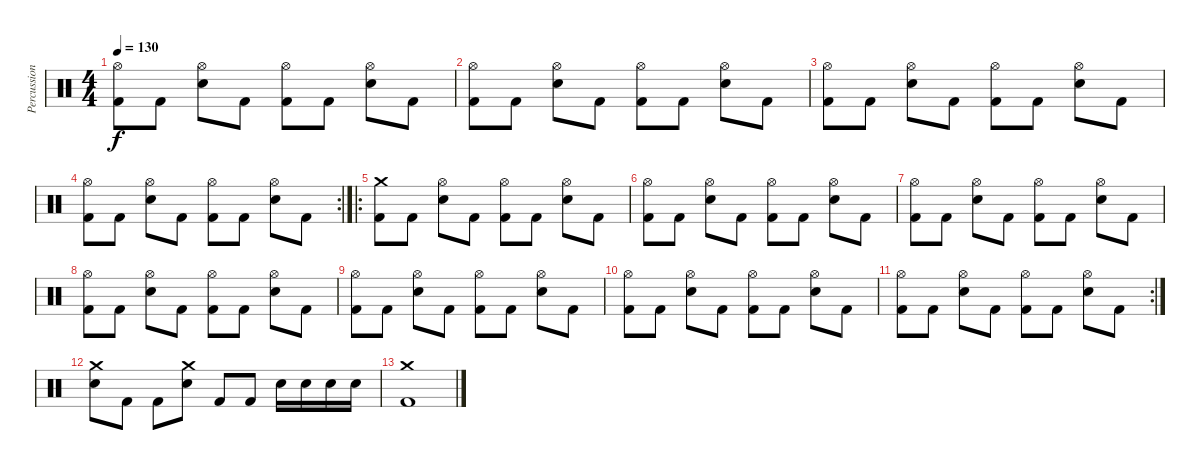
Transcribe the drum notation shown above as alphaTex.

\track ("Percussion" "Percussion") {instrument percussion}
\staff {score}
\articulation defaults
\ts (4 4)
\tempo 130
\clef neutral
\ks c
("Hi-Hat (open)" "Kick (hit) 2").8{dy f} "Kick (hit) 2".8 ("Hi-Hat (open)" "Electric Snare (hit)").8 "Kick (hit) 2".8 ("Hi-Hat (open)" "Kick (hit) 2").8 "Kick (hit) 2".8 ("Hi-Hat (open)" "Electric Snare (hit)").8 "Kick (hit) 2".8 |
("Hi-Hat (open)" "Kick (hit) 2").8 "Kick (hit) 2".8 ("Hi-Hat (open)" "Electric Snare (hit)").8 "Kick (hit) 2".8 ("Hi-Hat (open)" "Kick (hit) 2").8 "Kick (hit) 2".8 ("Hi-Hat (open)" "Electric Snare (hit)").8 "Kick (hit) 2".8 |
("Hi-Hat (open)" "Kick (hit) 2").8 "Kick (hit) 2".8 ("Hi-Hat (open)" "Electric Snare (hit)").8 "Kick (hit) 2".8 ("Hi-Hat (open)" "Kick (hit) 2").8 "Kick (hit) 2".8 ("Hi-Hat (open)" "Electric Snare (hit)").8 "Kick (hit) 2".8 |
\rc 2
("Hi-Hat (open)" "Kick (hit) 2").8 "Kick (hit) 2".8 ("Hi-Hat (open)" "Electric Snare (hit)").8 "Kick (hit) 2".8 ("Hi-Hat (open)" "Kick (hit) 2").8 "Kick (hit) 2".8 ("Hi-Hat (open)" "Electric Snare (hit)").8 "Kick (hit) 2".8 |
\ro
("Crash medium (hit)" "Kick (hit) 2").8 "Kick (hit) 2".8 ("Hi-Hat (open)" "Electric Snare (hit)").8 "Kick (hit) 2".8 ("Hi-Hat (open)" "Kick (hit) 2").8 "Kick (hit) 2".8 ("Hi-Hat (open)" "Electric Snare (hit)").8 "Kick (hit) 2".8 |
("Hi-Hat (open)" "Kick (hit) 2").8 "Kick (hit) 2".8 ("Hi-Hat (open)" "Electric Snare (hit)").8 "Kick (hit) 2".8 ("Hi-Hat (open)" "Kick (hit) 2").8 "Kick (hit) 2".8 ("Hi-Hat (open)" "Electric Snare (hit)").8 "Kick (hit) 2".8 |
("Hi-Hat (open)" "Kick (hit) 2").8 "Kick (hit) 2".8 ("Hi-Hat (open)" "Electric Snare (hit)").8 "Kick (hit) 2".8 ("Hi-Hat (open)" "Kick (hit) 2").8 "Kick (hit) 2".8 ("Hi-Hat (open)" "Electric Snare (hit)").8 "Kick (hit) 2".8 |
("Hi-Hat (open)" "Kick (hit) 2").8 "Kick (hit) 2".8 ("Hi-Hat (open)" "Electric Snare (hit)").8 "Kick (hit) 2".8 ("Hi-Hat (open)" "Kick (hit) 2").8 "Kick (hit) 2".8 ("Hi-Hat (open)" "Electric Snare (hit)").8 "Kick (hit) 2".8 |
("Hi-Hat (open)" "Kick (hit) 2").8 "Kick (hit) 2".8 ("Hi-Hat (open)" "Electric Snare (hit)").8 "Kick (hit) 2".8 ("Hi-Hat (open)" "Kick (hit) 2").8 "Kick (hit) 2".8 ("Hi-Hat (open)" "Electric Snare (hit)").8 "Kick (hit) 2".8 |
("Hi-Hat (open)" "Kick (hit) 2").8 "Kick (hit) 2".8 ("Hi-Hat (open)" "Electric Snare (hit)").8 "Kick (hit) 2".8 ("Hi-Hat (open)" "Kick (hit) 2").8 "Kick (hit) 2".8 ("Hi-Hat (open)" "Electric Snare (hit)").8 "Kick (hit) 2".8 |
\rc 2
("Hi-Hat (open)" "Kick (hit) 2").8 "Kick (hit) 2".8 ("Hi-Hat (open)" "Electric Snare (hit)").8 "Kick (hit) 2".8 ("Hi-Hat (open)" "Kick (hit) 2").8 "Kick (hit) 2".8 ("Hi-Hat (open)" "Electric Snare (hit)").8 "Kick (hit) 2".8 |
("Crash medium (hit)" "Electric Snare (hit)").8 "Kick (hit) 2".8 "Kick (hit) 2".8 ("Crash medium (hit)" "Electric Snare (hit)").8 "Kick (hit) 2".8 "Kick (hit) 2".8 "Electric Snare (hit)".16 "Electric Snare (hit)".16 "Electric Snare (hit)".16 "Electric Snare (hit)".16 |
("Crash medium (hit)" "Kick (hit) 2").1
